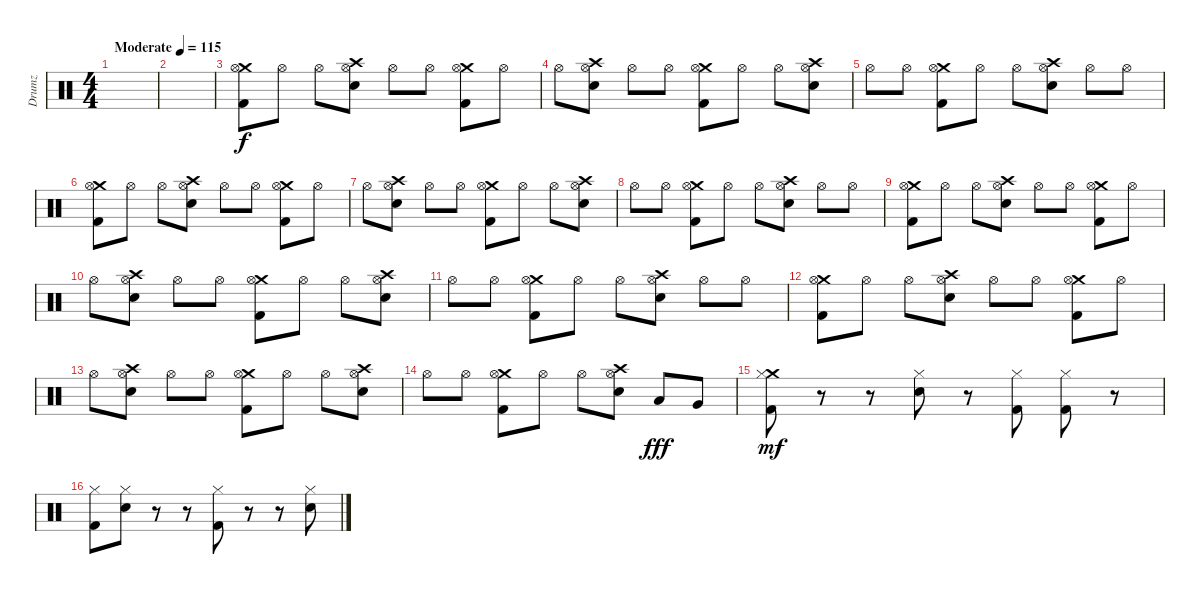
\track ("Drumz" "Drumz") {instrument percussion}
\staff
\articulation defaults
\ts (4 4)
\tempo (115 "Moderate")
\clef neutral
\ks c
|
|
("Crash medium (hit)" "Hi-Hat (open)" "Kick (hit) 2").8 "Hi-Hat (open)".8 "Hi-Hat (open)".8 ("Crash high (hit)" "Hi-Hat (open)" "Snare (hit) 2").8 "Hi-Hat (open)".8 "Hi-Hat (open)".8 ("Crash medium (hit)" "Hi-Hat (open)" "Kick (hit) 2").8 "Hi-Hat (open)".8 |
"Hi-Hat (open)".8 ("Crash high (hit)" "Hi-Hat (open)" "Snare (hit) 2").8 "Hi-Hat (open)".8 "Hi-Hat (open)".8 ("Crash medium (hit)" "Hi-Hat (open)" "Kick (hit) 2").8 "Hi-Hat (open)".8 "Hi-Hat (open)".8 ("Crash high (hit)" "Hi-Hat (open)" "Snare (hit) 2").8 |
"Hi-Hat (open)".8 "Hi-Hat (open)".8 ("Crash medium (hit)" "Hi-Hat (open)" "Kick (hit) 2").8 "Hi-Hat (open)".8 "Hi-Hat (open)".8 ("Crash high (hit)" "Hi-Hat (open)" "Snare (hit) 2").8 "Hi-Hat (open)".8 "Hi-Hat (open)".8 |
("Crash medium (hit)" "Hi-Hat (open)" "Kick (hit) 2").8 "Hi-Hat (open)".8 "Hi-Hat (open)".8 ("Crash high (hit)" "Hi-Hat (open)" "Snare (hit) 2").8 "Hi-Hat (open)".8 "Hi-Hat (open)".8 ("Crash medium (hit)" "Hi-Hat (open)" "Kick (hit) 2").8 "Hi-Hat (open)".8 |
"Hi-Hat (open)".8 ("Crash high (hit)" "Hi-Hat (open)" "Snare (hit) 2").8 "Hi-Hat (open)".8 "Hi-Hat (open)".8 ("Crash medium (hit)" "Hi-Hat (open)" "Kick (hit) 2").8 "Hi-Hat (open)".8 "Hi-Hat (open)".8 ("Crash high (hit)" "Hi-Hat (open)" "Snare (hit) 2").8 |
"Hi-Hat (open)".8 "Hi-Hat (open)".8 ("Crash medium (hit)" "Hi-Hat (open)" "Kick (hit) 2").8 "Hi-Hat (open)".8 "Hi-Hat (open)".8 ("Crash high (hit)" "Hi-Hat (open)" "Snare (hit) 2").8 "Hi-Hat (open)".8 "Hi-Hat (open)".8 |
("Crash medium (hit)" "Hi-Hat (open)" "Kick (hit) 2").8 "Hi-Hat (open)".8 "Hi-Hat (open)".8 ("Crash high (hit)" "Hi-Hat (open)" "Snare (hit) 2").8 "Hi-Hat (open)".8 "Hi-Hat (open)".8 ("Crash medium (hit)" "Hi-Hat (open)" "Kick (hit) 2").8 "Hi-Hat (open)".8 |
"Hi-Hat (open)".8 ("Crash high (hit)" "Hi-Hat (open)" "Snare (hit) 2").8 "Hi-Hat (open)".8 "Hi-Hat (open)".8 ("Crash medium (hit)" "Hi-Hat (open)" "Kick (hit) 2").8 "Hi-Hat (open)".8 "Hi-Hat (open)".8 ("Crash high (hit)" "Hi-Hat (open)" "Snare (hit) 2").8 |
"Hi-Hat (open)".8 "Hi-Hat (open)".8 ("Crash medium (hit)" "Hi-Hat (open)" "Kick (hit) 2").8 "Hi-Hat (open)".8 "Hi-Hat (open)".8 ("Crash high (hit)" "Hi-Hat (open)" "Snare (hit) 2").8 "Hi-Hat (open)".8 "Hi-Hat (open)".8 |
("Crash medium (hit)" "Hi-Hat (open)" "Kick (hit) 2").8 "Hi-Hat (open)".8 "Hi-Hat (open)".8 ("Crash high (hit)" "Hi-Hat (open)" "Snare (hit) 2").8 "Hi-Hat (open)".8 "Hi-Hat (open)".8 ("Crash medium (hit)" "Hi-Hat (open)" "Kick (hit) 2").8 "Hi-Hat (open)".8 |
"Hi-Hat (open)".8 ("Crash high (hit)" "Hi-Hat (open)" "Snare (hit) 2").8 "Hi-Hat (open)".8 "Hi-Hat (open)".8 ("Crash medium (hit)" "Hi-Hat (open)" "Kick (hit) 2").8 "Hi-Hat (open)".8 "Hi-Hat (open)".8 ("Crash high (hit)" "Hi-Hat (open)" "Snare (hit) 2").8 |
"Hi-Hat (open)".8 "Hi-Hat (open)".8 ("Crash medium (hit)" "Hi-Hat (open)" "Kick (hit) 2").8 "Hi-Hat (open)".8 "Hi-Hat (open)".8 ("Crash high (hit)" "Hi-Hat (open)" "Snare (hit) 2").8 "Low Floor Tom (hit)".8{dy fff} "Very Low Tom (hit)".8 |
("Crash medium (hit)" "Hi-Hat (closed)" "Kick (hit) 2").8{dy mf} r.8 r.8 ("Hi-Hat (closed)" "Snare (hit) 2").8 r.8 ("Hi-Hat (closed)" "Kick (hit) 2").8 ("Hi-Hat (closed)" "Kick (hit) 2").8 r.8 |
("Hi-Hat (closed)" "Kick (hit) 2").8 ("Hi-Hat (closed)" "Snare (hit) 2").8 r.8 r.8 ("Hi-Hat (closed)" "Kick (hit) 2").8 r.8 r.8 ("Hi-Hat (closed)" "Snare (hit) 2").8
